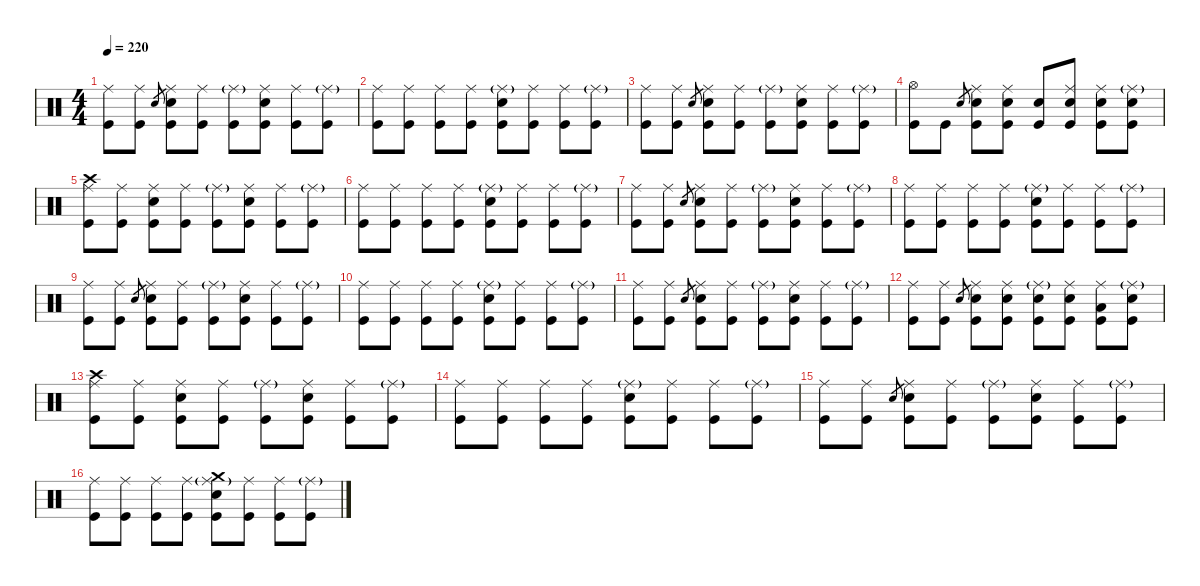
\defaultSystemsLayout 4
\hideDynamics
\bracketExtendMode nobrackets
\singleTrackTrackNamePolicy hidden
\multiTrackTrackNamePolicy hidden
\firstSystemTrackNameMode fullname
\firstSystemTrackNameOrientation horizontal
\otherSystemsTrackNameOrientation horizontal
\track ("Drums" "drm.") {instrument percussion}
\staff {score}
\articulation defaults
\ts (4 4)
\tempo 220
\clef neutral
\ks c
("Ride (middle)" "Kick (hit)").8{dy mf beam Down} ("Ride (middle)" "Kick (hit)").8{beam Down} "Electric Snare (hit)".8{gr dy mp beam Up} ("Ride (middle)" "Snare (hit) 2" "Kick (hit)").8{dy mf beam Down} ("Ride (middle)" "Kick (hit)").8{beam Down} ("Ride (middle)"{g} "Kick (hit)").8{dy f beam Down} ("Ride (middle)" "Snare (hit) 2" "Kick (hit)").8{dy mf beam Down} ("Ride (middle)" "Kick (hit)").8{beam Down} ("Ride (middle)"{g} "Kick (hit)").8{dy f beam Down} |
("Ride (middle)" "Kick (hit)").8{dy mf beam Down} ("Ride (middle)" "Kick (hit)").8{beam Down} ("Ride (middle)" "Kick (hit)").8{beam Down} ("Ride (middle)" "Kick (hit)").8{beam Down} ("Ride (middle)"{g} "Snare (hit) 2" "Kick (hit)").8{dy f beam Down} ("Ride (middle)" "Kick (hit)").8{dy mf beam Down} ("Ride (middle)" "Kick (hit)").8{beam Down} ("Ride (middle)"{g} "Kick (hit)").8{dy f beam Down} |
("Ride (middle)" "Kick (hit)").8{dy mf beam Down} ("Ride (middle)" "Kick (hit)").8{beam Down} "Electric Snare (hit)".8{gr dy mp beam Up} ("Ride (middle)" "Snare (hit) 2" "Kick (hit)").8{dy mf beam Down} ("Ride (middle)" "Kick (hit)").8{beam Down} ("Ride (middle)"{g} "Kick (hit)").8{dy f beam Down} ("Ride (middle)" "Snare (hit) 2" "Kick (hit)").8{dy mf beam Down} ("Ride (middle)" "Kick (hit)").8{beam Down} ("Ride (middle)"{g} "Kick (hit)").8{dy f beam Down} |
("Hi-Hat (open)" "Kick (hit)").8{dy mf beam Down} "Kick (hit)".8{dy f beam Down} "Electric Snare (hit)".8{gr dy mp beam Up} ("Ride (middle)" "Snare (hit) 2" "Kick (hit)").8{dy mf beam Down} ("Ride (middle)" "Snare (hit) 2" "Kick (hit)").8{beam Down} ("Snare (hit) 2" "Kick (hit)").8{dy f beam Up} ("Ride (middle)" "Snare (hit) 2" "Kick (hit)").8{dy mf beam Up} ("Ride (middle)" "Snare (hit) 2" "Kick (hit)").8{beam Down} ("Ride (middle)"{g} "Snare (hit) 2" "Kick (hit)").8{dy f beam Down} |
("Crash high (hit)" "Ride (middle)" "Kick (hit)").8{beam Down} ("Ride (middle)" "Kick (hit)").8{dy mf beam Down} ("Ride (middle)" "Snare (hit) 2" "Kick (hit)").8{beam Down} ("Ride (middle)" "Kick (hit)").8{beam Down} ("Ride (middle)"{g} "Kick (hit)").8{dy f beam Down} ("Ride (middle)" "Snare (hit) 2" "Kick (hit)").8{dy mf beam Down} ("Ride (middle)" "Kick (hit)").8{beam Down} ("Ride (middle)"{g} "Kick (hit)").8{dy f beam Down} |
("Ride (middle)" "Kick (hit)").8{dy mf beam Down} ("Ride (middle)" "Kick (hit)").8{beam Down} ("Ride (middle)" "Kick (hit)").8{beam Down} ("Ride (middle)" "Kick (hit)").8{beam Down} ("Ride (middle)"{g} "Snare (hit) 2" "Kick (hit)").8{dy f beam Down} ("Ride (middle)" "Kick (hit)").8{dy mf beam Down} ("Ride (middle)" "Kick (hit)").8{beam Down} ("Ride (middle)"{g} "Kick (hit)").8{dy f beam Down} |
("Ride (middle)" "Kick (hit)").8{dy mf beam Down} ("Ride (middle)" "Kick (hit)").8{beam Down} "Electric Snare (hit)".8{gr dy mp beam Up} ("Ride (middle)" "Snare (hit) 2" "Kick (hit)").8{dy mf beam Down} ("Ride (middle)" "Kick (hit)").8{beam Down} ("Ride (middle)"{g} "Kick (hit)").8{dy f beam Down} ("Ride (middle)" "Snare (hit) 2" "Kick (hit)").8{dy mf beam Down} ("Ride (middle)" "Kick (hit)").8{beam Down} ("Ride (middle)"{g} "Kick (hit)").8{dy f beam Down} |
("Ride (middle)" "Kick (hit)").8{dy mf beam Down} ("Ride (middle)" "Kick (hit)").8{beam Down} ("Ride (middle)" "Kick (hit)").8{beam Down} ("Ride (middle)" "Kick (hit)").8{beam Down} ("Ride (middle)"{g} "Snare (hit) 2" "Kick (hit)").8{dy f beam Down} ("Ride (middle)" "Kick (hit)").8{dy mf beam Down} ("Ride (middle)" "Kick (hit)").8{beam Down} ("Ride (middle)"{g} "Kick (hit)").8{dy f beam Down} |
("Ride (middle)" "Kick (hit)").8{dy mf beam Down} ("Ride (middle)" "Kick (hit)").8{beam Down} "Electric Snare (hit)".8{gr dy mp beam Up} ("Ride (middle)" "Snare (hit) 2" "Kick (hit)").8{dy mf beam Down} ("Ride (middle)" "Kick (hit)").8{beam Down} ("Ride (middle)"{g} "Kick (hit)").8{dy f beam Down} ("Ride (middle)" "Snare (hit) 2" "Kick (hit)").8{dy mf beam Down} ("Ride (middle)" "Kick (hit)").8{beam Down} ("Ride (middle)"{g} "Kick (hit)").8{dy f beam Down} |
("Ride (middle)" "Kick (hit)").8{dy mf beam Down} ("Ride (middle)" "Kick (hit)").8{beam Down} ("Ride (middle)" "Kick (hit)").8{beam Down} ("Ride (middle)" "Kick (hit)").8{beam Down} ("Ride (middle)"{g} "Snare (hit) 2" "Kick (hit)").8{dy f beam Down} ("Ride (middle)" "Kick (hit)").8{dy mf beam Down} ("Ride (middle)" "Kick (hit)").8{beam Down} ("Ride (middle)"{g} "Kick (hit)").8{dy f beam Down} |
("Ride (middle)" "Kick (hit)").8{dy mf beam Down} ("Ride (middle)" "Kick (hit)").8{beam Down} "Electric Snare (hit)".8{gr dy mp beam Up} ("Ride (middle)" "Snare (hit) 2" "Kick (hit)").8{dy mf beam Down} ("Ride (middle)" "Kick (hit)").8{beam Down} ("Ride (middle)"{g} "Kick (hit)").8{dy f beam Down} ("Ride (middle)" "Snare (hit) 2" "Kick (hit)").8{dy mf beam Down} ("Ride (middle)" "Kick (hit)").8{beam Down} ("Ride (middle)"{g} "Kick (hit)").8{dy f beam Down} |
("Ride (middle)" "Kick (hit)").8{dy mf beam Down} ("Ride (middle)" "Kick (hit)").8{beam Down} "Electric Snare (hit)".8{gr dy mp beam Up} ("Ride (middle)" "Snare (hit) 2" "Kick (hit)").8{dy mf beam Down} ("Ride (middle)" "Snare (hit) 2" "Kick (hit)").8{beam Down} ("Ride (middle)"{g} "Snare (hit) 2" "Kick (hit)").8{dy f beam Down} ("Ride (middle)" "Snare (hit) 2" "Kick (hit)").8{dy mf beam Down} ("Ride (middle)" "Low Tom (hit)" "Kick (hit)").8{beam Down} ("Ride (middle)"{g} "Snare (hit) 2" "Kick (hit)").8{dy f beam Down} |
("Crash high (hit)" "Ride (middle)" "Kick (hit)").8{beam Down} ("Ride (middle)" "Kick (hit)").8{dy mf beam Down} ("Ride (middle)" "Snare (hit) 2" "Kick (hit)").8{beam Down} ("Ride (middle)" "Kick (hit)").8{beam Down} ("Ride (middle)"{g} "Kick (hit)").8{dy f beam Down} ("Ride (middle)" "Snare (hit) 2" "Kick (hit)").8{dy mf beam Down} ("Ride (middle)" "Kick (hit)").8{beam Down} ("Ride (middle)"{g} "Kick (hit)").8{dy f beam Down} |
("Ride (middle)" "Kick (hit)").8{dy mf beam Down} ("Ride (middle)" "Kick (hit)").8{beam Down} ("Ride (middle)" "Kick (hit)").8{beam Down} ("Ride (middle)" "Kick (hit)").8{beam Down} ("Ride (middle)"{g} "Snare (hit) 2" "Kick (hit)").8{dy f beam Down} ("Ride (middle)" "Kick (hit)").8{dy mf beam Down} ("Ride (middle)" "Kick (hit)").8{beam Down} ("Ride (middle)"{g} "Kick (hit)").8{dy f beam Down} |
("Ride (middle)" "Kick (hit)").8{dy mf beam Down} ("Ride (middle)" "Kick (hit)").8{beam Down} "Electric Snare (hit)".8{gr dy mp beam Up} ("Ride (middle)" "Snare (hit) 2" "Kick (hit)").8{dy mf beam Down} ("Ride (middle)" "Kick (hit)").8{beam Down} ("Ride (middle)"{g} "Kick (hit)").8{dy f beam Down} ("Ride (middle)" "Snare (hit) 2" "Kick (hit)").8{dy mf beam Down} ("Ride (middle)" "Kick (hit)").8{beam Down} ("Ride (middle)"{g} "Kick (hit)").8{dy f beam Down} |
("Ride (middle)" "Kick (hit)").8{dy mf beam Down} ("Ride (middle)" "Kick (hit)").8{beam Down} ("Ride (middle)" "Kick (hit)").8{beam Down} ("Ride (middle)" "Kick (hit)").8{beam Down} ("Crash medium (hit)" "Ride (middle)"{g} "Snare (hit) 2" "Kick (hit)").8{beam Down} ("Ride (middle)" "Kick (hit)").8{beam Down} ("Ride (middle)" "Kick (hit)").8{beam Down} ("Ride (middle)"{g} "Kick (hit)").8{dy f beam Down}
